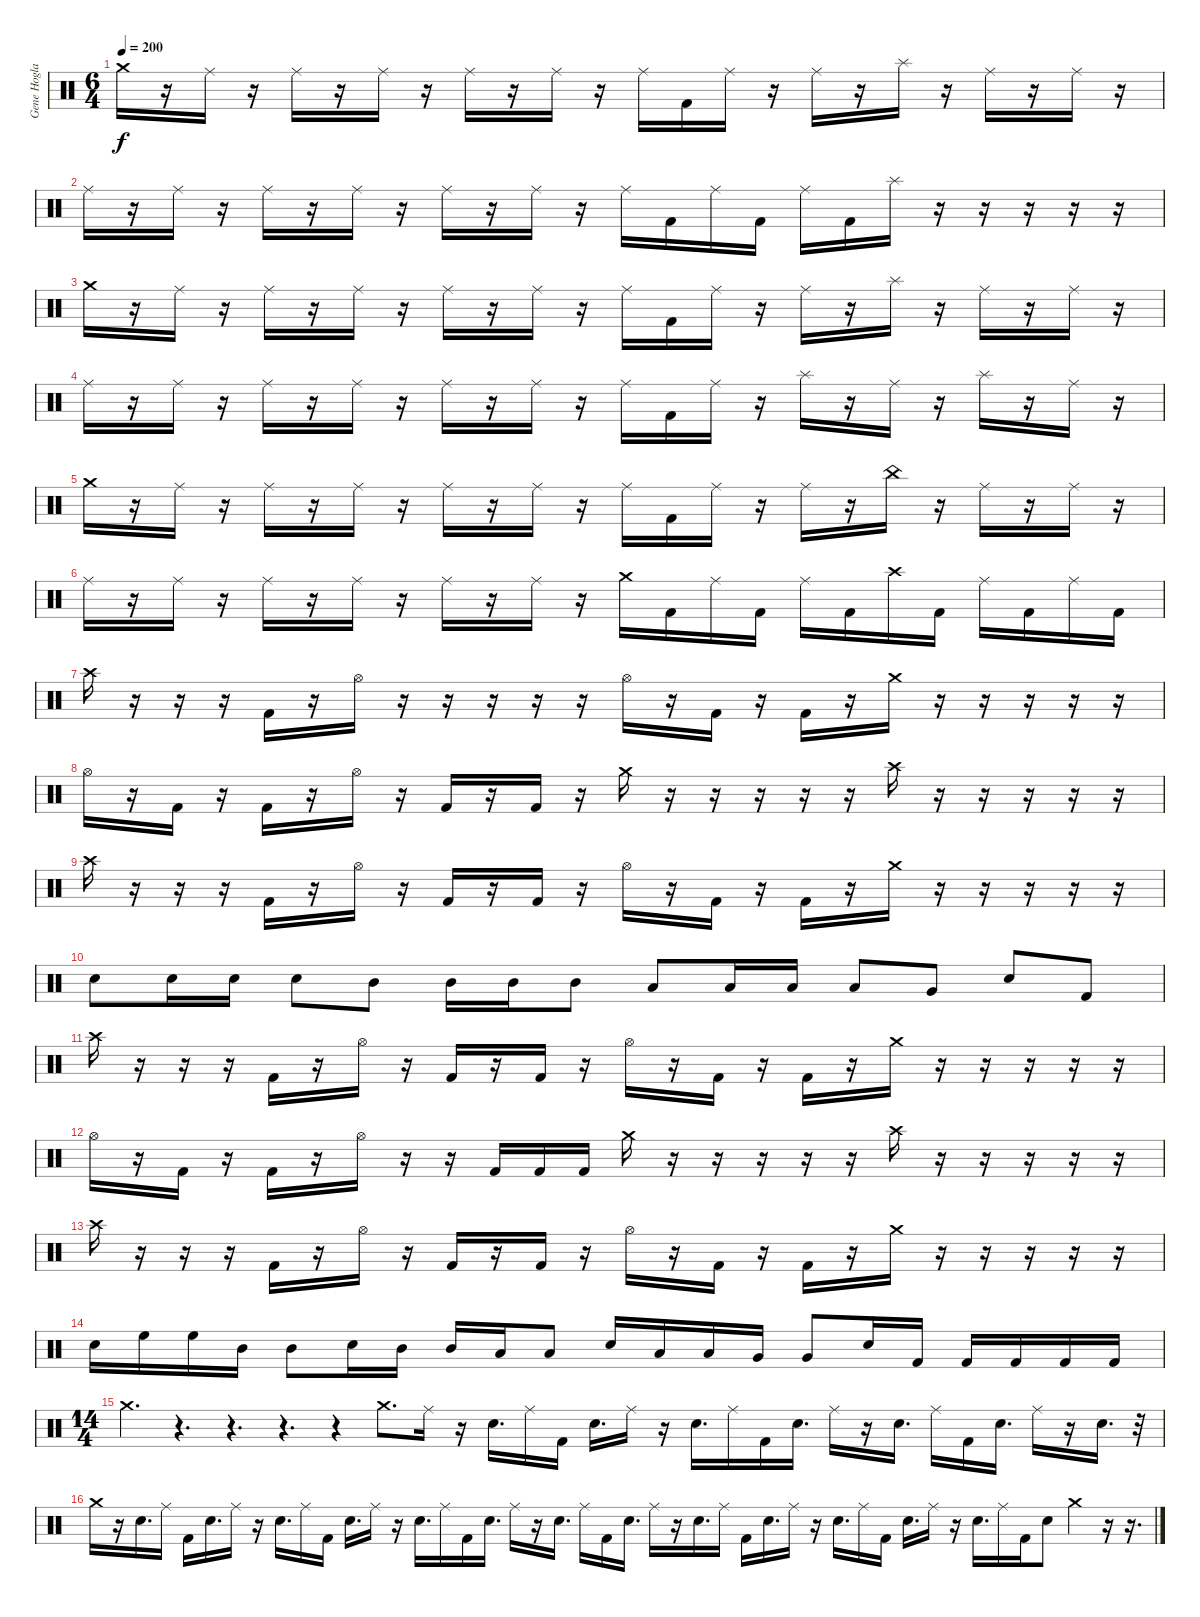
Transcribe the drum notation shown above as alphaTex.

\track ("Gene Hoglan" "Gene Hogla") {instrument percussion}
\staff {score}
\articulation defaults
\ts (6 4)
\tempo 200
\clef neutral
\ks c "Crash medium (hit)".16{dy f}
r.16 "Ride (middle)".16 r.16 "Ride (middle)".16 r.16 "Ride (middle)".16 r.16 "Ride (middle)".16 r.16 "Ride (middle)".16 r.16 "Ride (middle)".16 "Kick (hit) 2".16 "Ride (middle)".16 r.16 "Ride (middle)".16 r.16 "Splash (hit)".16 r.16 "Ride (middle)".16 r.16 "Ride (middle)".16 r.16 |
"Ride (middle)".16 r.16 "Ride (middle)".16 r.16 "Ride (middle)".16 r.16 "Ride (middle)".16 r.16 "Ride (middle)".16 r.16 "Ride (middle)".16 r.16 "Ride (middle)".16 "Kick (hit) 2".16 "Ride (middle)".16 "Kick (hit) 2".16 "Ride (middle)".16 "Kick (hit) 2".16 "Splash (hit)".16 r.16 r.16 r.16 r.16 r.16 |
"Crash medium (hit)".16 r.16 "Ride (middle)".16 r.16 "Ride (middle)".16 r.16 "Ride (middle)".16 r.16 "Ride (middle)".16 r.16 "Ride (middle)".16 r.16 "Ride (middle)".16 "Kick (hit) 2".16 "Ride (middle)".16 r.16 "Ride (middle)".16 r.16 "Splash (hit)".16 r.16 "Ride (middle)".16 r.16 "Ride (middle)".16 r.16 |
"Ride (middle)".16 r.16 "Ride (middle)".16 r.16 "Ride (middle)".16 r.16 "Ride (middle)".16 r.16 "Ride (middle)".16 r.16 "Ride (middle)".16 r.16 "Ride (middle)".16 "Kick (hit) 2".16 "Ride (middle)".16 r.16 "Splash (hit)".16 r.16 "Ride (middle)".16 r.16 "Splash (hit)".16 r.16 "Ride (middle)".16 r.16 |
"Crash medium (hit)".16 r.16 "Ride (middle)".16 r.16 "Ride (middle)".16 r.16 "Ride (middle)".16 r.16 "Ride (middle)".16 r.16 "Ride (middle)".16 r.16 "Ride (middle)".16 "Kick (hit) 2".16 "Ride (middle)".16 r.16 "Ride (middle)".16 r.16 "China (hit)".16 r.16 "Ride (middle)".16 r.16 "Ride (middle)".16 r.16 |
"Ride (middle)".16 r.16 "Ride (middle)".16 r.16 "Ride (middle)".16 r.16 "Ride (middle)".16 r.16 "Ride (middle)".16 r.16 "Ride (middle)".16 r.16 "Crash medium (hit)".16 "Kick (hit) 2".16 "Ride (middle)".16 "Kick (hit) 2".16 "Ride (middle)".16 "Kick (hit) 2".16 "Crash high (hit)".16 "Kick (hit) 2".16 "Ride (middle)".16 "Kick (hit) 2".16 "Ride (middle)".16 "Kick (hit) 2".16 |
"Crash high (hit)".16 r.16 r.16 r.16 "Kick (hit) 2".16 r.16 "Hi-Hat (open)".16 r.16 r.16 r.16 r.16 r.16 "Hi-Hat (open)".16 r.16 "Kick (hit) 2".16 r.16 "Kick (hit) 2".16 r.16 "Crash medium (hit)".16 r.16 r.16 r.16 r.16 r.16 |
"Hi-Hat (open)".16 r.16 "Kick (hit) 2".16 r.16 "Kick (hit) 2".16 r.16 "Hi-Hat (open)".16 r.16 "Kick (hit) 2".16 r.16 "Kick (hit) 2".16 r.16 "Crash medium (hit)".16 r.16 r.16 r.16 r.16 r.16 "Crash high (hit)".16 r.16 r.16 r.16 r.16 r.16 |
"Crash high (hit)".16 r.16 r.16 r.16 "Kick (hit) 2".16 r.16 "Hi-Hat (open)".16 r.16 "Kick (hit) 2".16 r.16 "Kick (hit) 2".16 r.16 "Hi-Hat (open)".16 r.16 "Kick (hit) 2".16 r.16 "Kick (hit) 2".16 r.16 "Crash medium (hit)".16 r.16 r.16 r.16 r.16 r.16 |
"Snare (hit) 2".8 "Snare (hit) 2".16 "Snare (hit) 2".16 "Snare (hit) 2".8 "Mid Tom (hit)".8 "Mid Tom (hit)".16 "Mid Tom (hit)".16 "Mid Tom (hit)".8 "Low Tom (hit)".8 "Low Tom (hit)".16 "Low Tom (hit)".16 "Low Tom (hit)".8 "Very Low Tom (hit)".8 "Snare (hit) 2".8 "Kick (hit) 2".8 |
"Crash high (hit)".16 r.16 r.16 r.16 "Kick (hit) 2".16 r.16 "Hi-Hat (open)".16 r.16 "Kick (hit) 2".16 r.16 "Kick (hit) 2".16 r.16 "Hi-Hat (open)".16 r.16 "Kick (hit) 2".16 r.16 "Kick (hit) 2".16 r.16 "Crash medium (hit)".16 r.16 r.16 r.16 r.16 r.16 |
"Hi-Hat (open)".16 r.16 "Kick (hit) 2".16 r.16 "Kick (hit) 2".16 r.16 "Hi-Hat (open)".16 r.16 r.16 "Kick (hit) 2".16 "Kick (hit) 2".16 "Kick (hit) 2".16 "Crash medium (hit)".16 r.16 r.16 r.16 r.16 r.16 "Crash high (hit)".16 r.16 r.16 r.16 r.16 r.16 |
"Crash high (hit)".16 r.16 r.16 r.16 "Kick (hit) 2".16 r.16 "Hi-Hat (open)".16 r.16 "Kick (hit) 2".16 r.16 "Kick (hit) 2".16 r.16 "Hi-Hat (open)".16 r.16 "Kick (hit) 2".16 r.16 "Kick (hit) 2".16 r.16 "Crash medium (hit)".16 r.16 r.16 r.16 r.16 r.16 |
"Snare (hit) 2".16 "High Floor Tom (hit)".16 "High Floor Tom (hit)".16 "Mid Tom (hit)".16 "Mid Tom (hit)".8 "Snare (hit) 2".16 "Mid Tom (hit)".16 "Mid Tom (hit)".16 "Low Tom (hit)".16 "Low Tom (hit)".8 "Snare (hit) 2".16 "Low Tom (hit)".16 "Low Tom (hit)".16 "Very Low Tom (hit)".16 "Very Low Tom (hit)".8 "Snare (hit) 2".16 "Kick (hit) 2".16 "Kick (hit) 2".16 "Kick (hit) 2".16 "Kick (hit) 2".16 "Kick (hit) 2".16 |
\ts (14 4)
"Crash medium (hit)".4{d} r.4{d} r.4{d} r.4{d} r.4 "Crash medium (hit)".8{d} "Ride (middle)".16 r.16 "Snare (hit) 2".16{d} "Ride (middle)".16 "Kick (hit) 2".16 "Snare (hit) 2".16{d} "Ride (middle)".16 r.16 "Snare (hit) 2".16{d} "Ride (middle)".16 "Kick (hit) 2".16 "Snare (hit) 2".16{d} "Ride (middle)".16 r.16 "Snare (hit) 2".16{d} "Ride (middle)".16 "Kick (hit) 2".16 "Snare (hit) 2".16{d} "Ride (middle)".16 r.16 "Snare (hit) 2".16{d} r.32 |
"Crash medium (hit)".16 r.16 "Snare (hit) 2".16{d} "Ride (middle)".16 "Kick (hit) 2".16 "Snare (hit) 2".16{d} "Ride (middle)".16 r.16 "Snare (hit) 2".16{d} "Ride (middle)".16 "Kick (hit) 2".16 "Snare (hit) 2".16{d} "Ride (middle)".16 r.16 "Snare (hit) 2".16{d} "Ride (middle)".16 "Kick (hit) 2".16 "Snare (hit) 2".16{d} "Ride (middle)".16 r.16 "Snare (hit) 2".16{d} "Ride (middle)".16 "Kick (hit) 2".16 "Snare (hit) 2".16{d} "Ride (middle)".16 r.16 "Snare (hit) 2".16{d} "Ride (middle)".16 "Kick (hit) 2".16 "Snare (hit) 2".16{d} "Ride (middle)".16 r.16 "Snare (hit) 2".16{d} "Ride (middle)".16 "Kick (hit) 2".16 "Snare (hit) 2".16{d} "Ride (middle)".16 r.16 "Snare (hit) 2".16{d} "Ride (middle)".16 "Kick (hit) 2".16 "Snare (hit) 2".8 "Crash medium (hit)".4 r.16 r.16{d}
